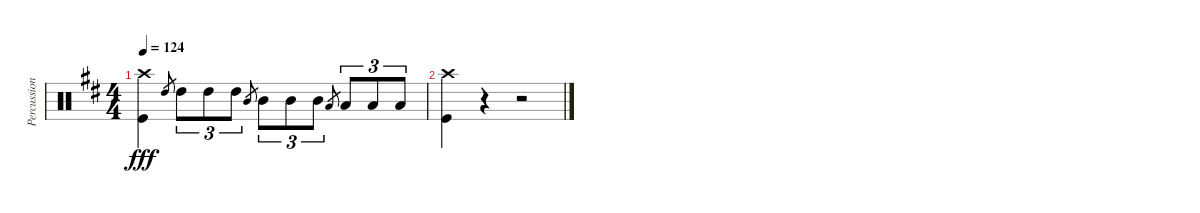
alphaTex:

\track ("Percussion" "Percussion") {instrument percussion}
\staff {score}
\articulation defaults
\ts (4 4)
\tempo 124
\clef neutral
\ks d
("Crash high (hit)" "Kick (hit)").4{dy fff} "High Tom (hit)".8{gr} "High Tom (hit)".8{tu (3 2)} "High Tom (hit)".8{tu (3 2)} "High Tom (hit)".8{tu (3 2)} "Mid Tom (hit)".8{gr} "Mid Tom (hit)".8{tu (3 2)} "Mid Tom (hit)".8{tu (3 2)} "Mid Tom (hit)".8{tu (3 2)} "Low Tom (hit)".8{gr} "Low Tom (hit)".8{tu (3 2)} "Low Tom (hit)".8{tu (3 2)} "Low Tom (hit)".8{tu (3 2)} |
("Crash high (hit)" "Kick (hit)").4 r.4 r.2
